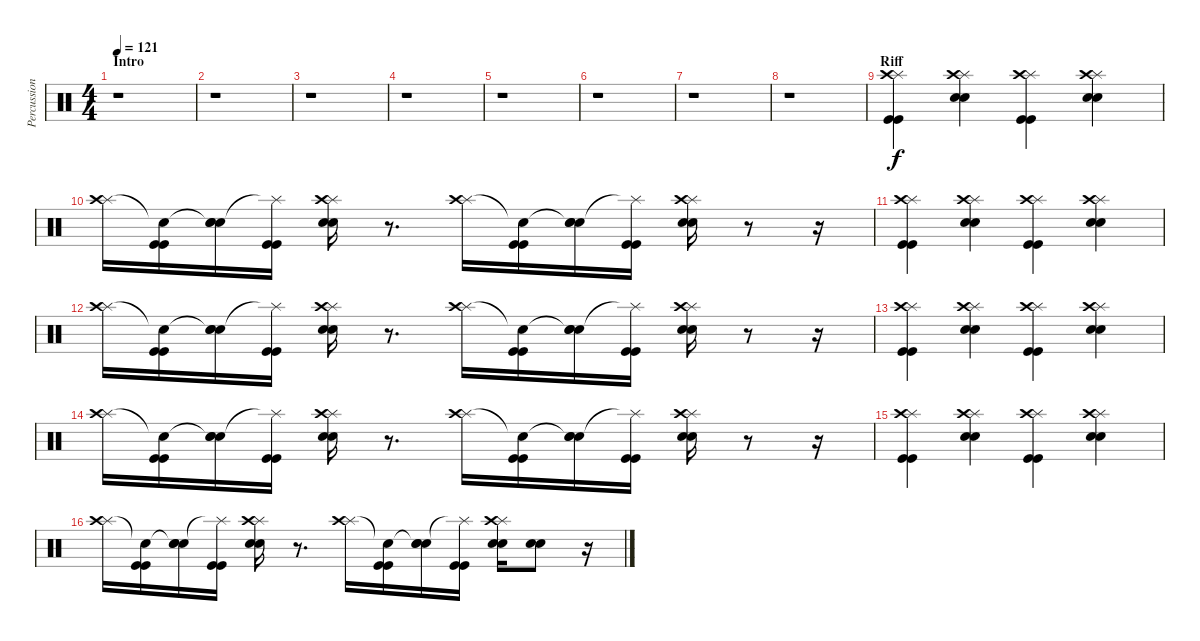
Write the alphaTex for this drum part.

\track ("Percussions" "Percussion") {instrument percussion}
\staff {score}
\articulation defaults
\ts (4 4)
\section ("" "Intro")
\tempo 121
\clef neutral
\ks c
r.1{dy f} |
r.1 |
r.1 |
r.1 |
r.1 |
r.1 |
r.1 |
r.1 |
\section ("" "Riff")
("Splash (hit)" "Crash high (hit)" "Kick (hit)" "Kick (hit)").4 ("Splash (hit)" "Crash high (hit)" "Electric Snare (hit)" "Electric Snare (hit)").4 ("Splash (hit)" "Crash high (hit)" "Kick (hit)" "Kick (hit)").4 ("Splash (hit)" "Crash high (hit)" "Electric Snare (hit)" "Electric Snare (hit)").4 |
("Splash (hit)" "Crash high (hit)").16 ("Snare (hit)"{t} "Kick (hit)" "Kick (hit)").16 ("Snare (hit)"{t} "Electric Snare (hit)" "Electric Snare (hit)").16 ("Splash (hit)"{t} "Kick (hit)" "Kick (hit)").16 ("Splash (hit)" "Crash high (hit)" "Electric Snare (hit)" "Electric Snare (hit)").16 r.8{d} ("Splash (hit)" "Crash high (hit)").16 ("Snare (hit)"{t} "Kick (hit)" "Kick (hit)").16 ("Snare (hit)"{t} "Electric Snare (hit)" "Electric Snare (hit)").16 ("Splash (hit)"{t} "Kick (hit)" "Kick (hit)").16 ("Splash (hit)" "Crash high (hit)" "Electric Snare (hit)" "Electric Snare (hit)").16 r.8 r.16 |
("Splash (hit)" "Crash high (hit)" "Kick (hit)" "Kick (hit)").4 ("Splash (hit)" "Crash high (hit)" "Electric Snare (hit)" "Electric Snare (hit)").4 ("Splash (hit)" "Crash high (hit)" "Kick (hit)" "Kick (hit)").4 ("Splash (hit)" "Crash high (hit)" "Electric Snare (hit)" "Electric Snare (hit)").4 |
("Splash (hit)" "Crash high (hit)").16 ("Snare (hit)"{t} "Kick (hit)" "Kick (hit)").16 ("Snare (hit)"{t} "Electric Snare (hit)" "Electric Snare (hit)").16 ("Splash (hit)"{t} "Kick (hit)" "Kick (hit)").16 ("Splash (hit)" "Crash high (hit)" "Electric Snare (hit)" "Electric Snare (hit)").16 r.8{d} ("Splash (hit)" "Crash high (hit)").16 ("Snare (hit)"{t} "Kick (hit)" "Kick (hit)").16 ("Snare (hit)"{t} "Electric Snare (hit)" "Electric Snare (hit)").16 ("Splash (hit)"{t} "Kick (hit)" "Kick (hit)").16 ("Splash (hit)" "Crash high (hit)" "Electric Snare (hit)" "Electric Snare (hit)").16 r.8 r.16 |
("Splash (hit)" "Crash high (hit)" "Kick (hit)" "Kick (hit)").4 ("Splash (hit)" "Crash high (hit)" "Electric Snare (hit)" "Electric Snare (hit)").4 ("Splash (hit)" "Crash high (hit)" "Kick (hit)" "Kick (hit)").4 ("Splash (hit)" "Crash high (hit)" "Electric Snare (hit)" "Electric Snare (hit)").4 |
("Splash (hit)" "Crash high (hit)").16 ("Snare (hit)"{t} "Kick (hit)" "Kick (hit)").16 ("Snare (hit)"{t} "Electric Snare (hit)" "Electric Snare (hit)").16 ("Splash (hit)"{t} "Kick (hit)" "Kick (hit)").16 ("Splash (hit)" "Crash high (hit)" "Electric Snare (hit)" "Electric Snare (hit)").16 r.8{d} ("Splash (hit)" "Crash high (hit)").16 ("Snare (hit)"{t} "Kick (hit)" "Kick (hit)").16 ("Snare (hit)"{t} "Electric Snare (hit)" "Electric Snare (hit)").16 ("Splash (hit)"{t} "Kick (hit)" "Kick (hit)").16 ("Splash (hit)" "Crash high (hit)" "Electric Snare (hit)" "Electric Snare (hit)").16 r.8 r.16 |
("Splash (hit)" "Crash high (hit)" "Kick (hit)" "Kick (hit)").4 ("Splash (hit)" "Crash high (hit)" "Electric Snare (hit)" "Electric Snare (hit)").4 ("Splash (hit)" "Crash high (hit)" "Kick (hit)" "Kick (hit)").4 ("Splash (hit)" "Crash high (hit)" "Electric Snare (hit)" "Electric Snare (hit)").4 |
("Splash (hit)" "Crash high (hit)").16 ("Snare (hit)"{t} "Kick (hit)" "Kick (hit)").16 ("Snare (hit)"{t} "Electric Snare (hit)" "Electric Snare (hit)").16 ("Splash (hit)"{t} "Kick (hit)" "Kick (hit)").16 ("Splash (hit)" "Crash high (hit)" "Electric Snare (hit)" "Electric Snare (hit)").16 r.8{d} ("Splash (hit)" "Crash high (hit)").16 ("Snare (hit)"{t} "Kick (hit)" "Kick (hit)").16 ("Snare (hit)"{t} "Electric Snare (hit)" "Electric Snare (hit)").16 ("Splash (hit)"{t} "Kick (hit)" "Kick (hit)").16 ("Splash (hit)" "Crash high (hit)" "Electric Snare (hit)" "Electric Snare (hit)").16 ("Electric Snare (hit)" "Electric Snare (hit)").8 r.16
